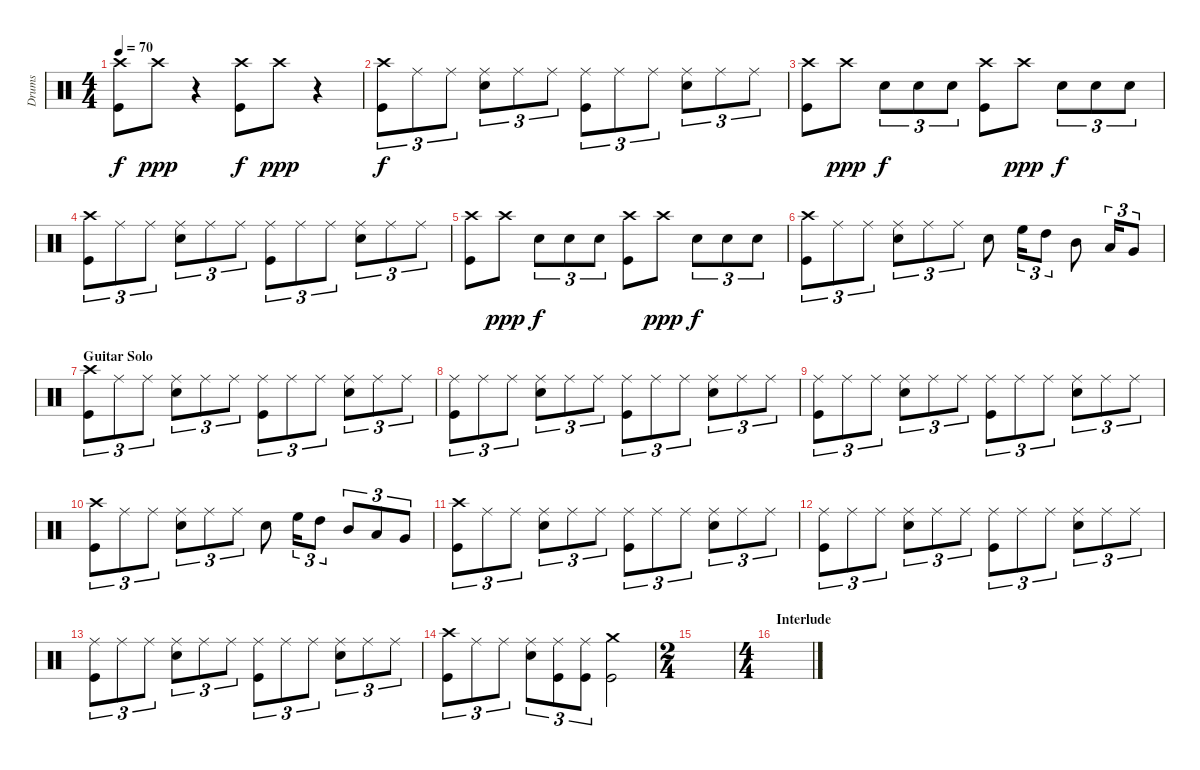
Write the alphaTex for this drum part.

\track ("Drums" "Drums") {instrument percussion}
\staff {score}
\articulation defaults
\ts (4 4)
\tempo 70
\clef neutral
\ks c
("Crash high (hit)" "Kick (hit)").8{dy f} "Crash high (hit)".8{dy ppp} r.4 ("Crash high (hit)" "Kick (hit)").8{dy f} "Crash high (hit)".8{dy ppp} r.4 |
("Crash high (hit)" "Kick (hit)").8{tu (3 2) dy f} "Ride (middle)".8{tu (3 2)} "Ride (middle)".8{tu (3 2)} ("Ride (middle)" "Electric Snare (hit)").8{tu (3 2)} "Ride (middle)".8{tu (3 2)} "Ride (middle)".8{tu (3 2)} ("Ride (middle)" "Kick (hit)").8{tu (3 2)} "Ride (middle)".8{tu (3 2)} "Ride (middle)".8{tu (3 2)} ("Ride (middle)" "Electric Snare (hit)").8{tu (3 2)} "Ride (middle)".8{tu (3 2)} "Ride (middle)".8{tu (3 2)} |
("Crash high (hit)" "Kick (hit)").8 "Crash high (hit)".8{dy ppp} "Snare (hit) 2".8{tu (3 2) dy f} "Snare (hit) 2".8{tu (3 2)} "Snare (hit) 2".8{tu (3 2)} ("Crash high (hit)" "Kick (hit)").8 "Crash high (hit)".8{dy ppp} "Snare (hit) 2".8{tu (3 2) dy f} "Snare (hit) 2".8{tu (3 2)} "Snare (hit) 2".8{tu (3 2)} |
("Crash high (hit)" "Kick (hit)").8{tu (3 2)} "Ride (middle)".8{tu (3 2)} "Ride (middle)".8{tu (3 2)} ("Ride (middle)" "Electric Snare (hit)").8{tu (3 2)} "Ride (middle)".8{tu (3 2)} "Ride (middle)".8{tu (3 2)} ("Ride (middle)" "Kick (hit)").8{tu (3 2)} "Ride (middle)".8{tu (3 2)} "Ride (middle)".8{tu (3 2)} ("Ride (middle)" "Electric Snare (hit)").8{tu (3 2)} "Ride (middle)".8{tu (3 2)} "Ride (middle)".8{tu (3 2)} |
("Crash high (hit)" "Kick (hit)").8 "Crash high (hit)".8{dy ppp} "Snare (hit) 2".8{tu (3 2) dy f} "Snare (hit) 2".8{tu (3 2)} "Snare (hit) 2".8{tu (3 2)} ("Crash high (hit)" "Kick (hit)").8 "Crash high (hit)".8{dy ppp} "Snare (hit) 2".8{tu (3 2) dy f} "Snare (hit) 2".8{tu (3 2)} "Snare (hit) 2".8{tu (3 2)} |
("Crash high (hit)" "Kick (hit)").8{tu (3 2)} "Ride (middle)".8{tu (3 2)} "Ride (middle)".8{tu (3 2)} ("Ride (middle)" "Electric Snare (hit)").8{tu (3 2)} "Ride (middle)".8{tu (3 2)} "Ride (middle)".8{tu (3 2)} "Electric Snare (hit)".8 "High Floor Tom (hit)".16{tu (3 2)} "High Tom (hit)".8{tu (3 2)} "Mid Tom (hit)".8 "Low Tom (hit)".16{tu (3 2)} "Very Low Tom (hit)".8{tu (3 2)} |
\section ("" "Guitar Solo")
("Crash high (hit)" "Kick (hit)").8{tu (3 2)} "Ride (middle)".8{tu (3 2)} "Ride (middle)".8{tu (3 2)} ("Ride (middle)" "Electric Snare (hit)").8{tu (3 2)} "Ride (middle)".8{tu (3 2)} "Ride (middle)".8{tu (3 2)} ("Ride (middle)" "Kick (hit)").8{tu (3 2)} "Ride (middle)".8{tu (3 2)} "Ride (middle)".8{tu (3 2)} ("Ride (middle)" "Electric Snare (hit)").8{tu (3 2)} "Ride (middle)".8{tu (3 2)} "Ride (middle)".8{tu (3 2)} |
("Ride (middle)" "Kick (hit)").8{tu (3 2)} "Ride (middle)".8{tu (3 2)} "Ride (middle)".8{tu (3 2)} ("Ride (middle)" "Electric Snare (hit)").8{tu (3 2)} "Ride (middle)".8{tu (3 2)} "Ride (middle)".8{tu (3 2)} ("Ride (middle)" "Kick (hit)").8{tu (3 2)} "Ride (middle)".8{tu (3 2)} "Ride (middle)".8{tu (3 2)} ("Ride (middle)" "Electric Snare (hit)").8{tu (3 2)} "Ride (middle)".8{tu (3 2)} "Ride (middle)".8{tu (3 2)} |
("Ride (middle)" "Kick (hit)").8{tu (3 2)} "Ride (middle)".8{tu (3 2)} "Ride (middle)".8{tu (3 2)} ("Ride (middle)" "Electric Snare (hit)").8{tu (3 2)} "Ride (middle)".8{tu (3 2)} "Ride (middle)".8{tu (3 2)} ("Ride (middle)" "Kick (hit)").8{tu (3 2)} "Ride (middle)".8{tu (3 2)} "Ride (middle)".8{tu (3 2)} ("Ride (middle)" "Electric Snare (hit)").8{tu (3 2)} "Ride (middle)".8{tu (3 2)} "Ride (middle)".8{tu (3 2)} |
("Crash high (hit)" "Kick (hit)").8{tu (3 2)} "Ride (middle)".8{tu (3 2)} "Ride (middle)".8{tu (3 2)} ("Ride (middle)" "Electric Snare (hit)").8{tu (3 2)} "Ride (middle)".8{tu (3 2)} "Ride (middle)".8{tu (3 2)} "Electric Snare (hit)".8 "High Floor Tom (hit)".16{tu (3 2)} "High Tom (hit)".8{tu (3 2)} "Mid Tom (hit)".8{tu (3 2)} "Low Tom (hit)".8{tu (3 2)} "Very Low Tom (hit)".8{tu (3 2)} |
("Crash high (hit)" "Kick (hit)").8{tu (3 2)} "Ride (middle)".8{tu (3 2)} "Ride (middle)".8{tu (3 2)} ("Ride (middle)" "Electric Snare (hit)").8{tu (3 2)} "Ride (middle)".8{tu (3 2)} "Ride (middle)".8{tu (3 2)} ("Ride (middle)" "Kick (hit)").8{tu (3 2)} "Ride (middle)".8{tu (3 2)} "Ride (middle)".8{tu (3 2)} ("Ride (middle)" "Electric Snare (hit)").8{tu (3 2)} "Ride (middle)".8{tu (3 2)} "Ride (middle)".8{tu (3 2)} |
("Ride (middle)" "Kick (hit)").8{tu (3 2)} "Ride (middle)".8{tu (3 2)} "Ride (middle)".8{tu (3 2)} ("Ride (middle)" "Electric Snare (hit)").8{tu (3 2)} "Ride (middle)".8{tu (3 2)} "Ride (middle)".8{tu (3 2)} ("Ride (middle)" "Kick (hit)").8{tu (3 2)} "Ride (middle)".8{tu (3 2)} "Ride (middle)".8{tu (3 2)} ("Ride (middle)" "Electric Snare (hit)").8{tu (3 2)} "Ride (middle)".8{tu (3 2)} "Ride (middle)".8{tu (3 2)} |
("Ride (middle)" "Kick (hit)").8{tu (3 2)} "Ride (middle)".8{tu (3 2)} "Ride (middle)".8{tu (3 2)} ("Ride (middle)" "Electric Snare (hit)").8{tu (3 2)} "Ride (middle)".8{tu (3 2)} "Ride (middle)".8{tu (3 2)} ("Ride (middle)" "Kick (hit)").8{tu (3 2)} "Ride (middle)".8{tu (3 2)} "Ride (middle)".8{tu (3 2)} ("Ride (middle)" "Electric Snare (hit)").8{tu (3 2)} "Ride (middle)".8{tu (3 2)} "Ride (middle)".8{tu (3 2)} |
("Crash high (hit)" "Kick (hit)").8{tu (3 2)} "Ride (middle)".8{tu (3 2)} "Ride (middle)".8{tu (3 2)} ("Ride (middle)" "Electric Snare (hit)").8{tu (3 2)} ("Ride (middle)" "Kick (hit)").8{tu (3 2)} ("Ride (middle)" "Kick (hit)").8{tu (3 2)} ("Crash medium (hit)" "Kick (hit)").2 |
\ts (2 4)
|
\ts (4 4)
\section ("" "Interlude")
